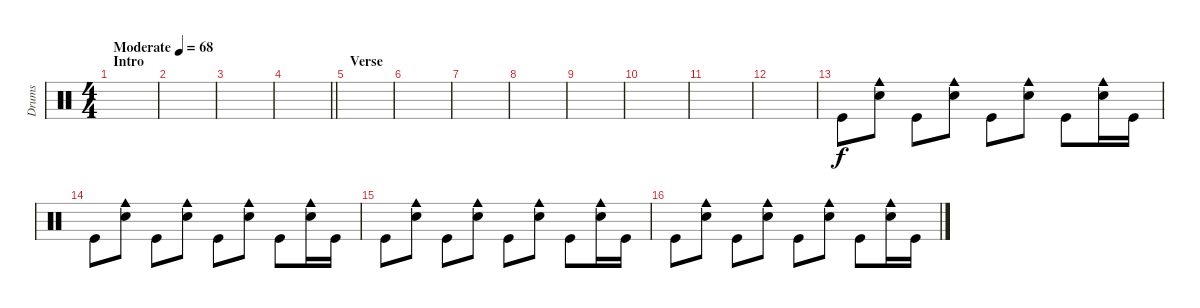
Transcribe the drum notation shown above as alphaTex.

\track ("Drums" "Drums") {instrument percussion}
\staff {score}
\articulation defaults
\ts (4 4)
\section ("" "Intro")
\tempo (68 "Moderate")
\clef neutral
\ks c
|
|
|
\barLineRight lightlight
|
\section ("" "Verse")
|
|
|
|
|
|
|
|
"Kick (hit)".8 ("Cowbell medium (hit)" "Electric Snare (hit)").8 "Kick (hit)".8 ("Cowbell medium (hit)" "Electric Snare (hit)").8 "Kick (hit)".8 ("Cowbell medium (hit)" "Electric Snare (hit)").8 "Kick (hit)".8 ("Cowbell medium (hit)" "Electric Snare (hit)").16 "Kick (hit)".16 |
"Kick (hit)".8 ("Cowbell medium (hit)" "Electric Snare (hit)").8 "Kick (hit)".8 ("Cowbell medium (hit)" "Electric Snare (hit)").8 "Kick (hit)".8 ("Cowbell medium (hit)" "Electric Snare (hit)").8 "Kick (hit)".8 ("Cowbell medium (hit)" "Electric Snare (hit)").16 "Kick (hit)".16 |
"Kick (hit)".8 ("Cowbell medium (hit)" "Electric Snare (hit)").8 "Kick (hit)".8 ("Cowbell medium (hit)" "Electric Snare (hit)").8 "Kick (hit)".8 ("Cowbell medium (hit)" "Electric Snare (hit)").8 "Kick (hit)".8 ("Cowbell medium (hit)" "Electric Snare (hit)").16 "Kick (hit)".16 |
"Kick (hit)".8 ("Cowbell medium (hit)" "Electric Snare (hit)").8 "Kick (hit)".8 ("Cowbell medium (hit)" "Electric Snare (hit)").8 "Kick (hit)".8 ("Cowbell medium (hit)" "Electric Snare (hit)").8 "Kick (hit)".8 ("Cowbell medium (hit)" "Electric Snare (hit)").16 "Kick (hit)".16
